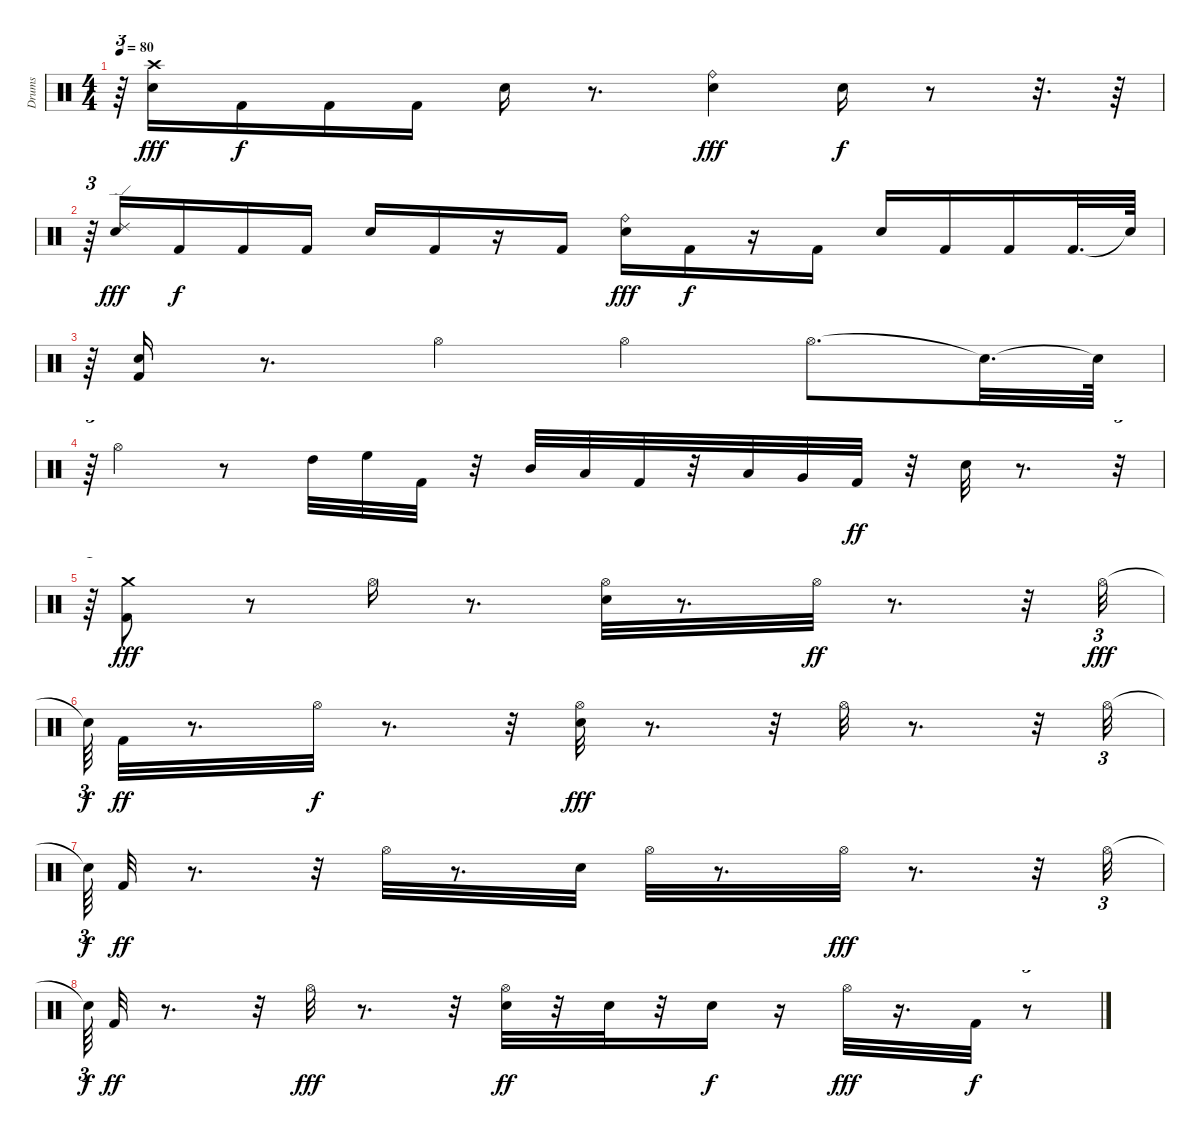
\track ("Drums" "Drums") {instrument percussion}
\staff {score}
\articulation defaults
\ts (4 4)
\tempo 80
\clef neutral
\ks c
r.64{tu (3 2) dy f} ("Crash high (hit)" "Electric Snare (hit)").16{dy fff} "Kick (hit) 2".16{dy f} "Kick (hit) 2".16 "Kick (hit) 2".16 "Electric Snare (hit)".16 r.8{d} ("Ride (bell)" "Electric Snare (hit)").4{dy fff} "Electric Snare (hit)".16{dy f} r.8 r.32{d} r.64 |
r.64{tu (3 2)} ("Ride (edge) 2" "Electric Snare (hit)").16{dy fff} "Kick (hit) 2".16{dy f} "Kick (hit) 2".16 "Kick (hit) 2".16 "Electric Snare (hit)".16 "Kick (hit) 2".16 r.16 "Kick (hit) 2".16 ("Electric Snare (hit)" "Ride (bell)").16{dy fff} "Kick (hit) 2".16{dy f} r.16 "Kick (hit) 2".16 "Electric Snare (hit)".16 "Kick (hit) 2".16 "Kick (hit) 2".16 "Kick (hit) 2".32{d} "Snare (hit)"{t}.64 |
r.64{tu (3 2)} ("Electric Snare (hit)" "Kick (hit) 2").16 r.8{d} "Hi-Hat (open)".4 "Hi-Hat (open)".4 "Hi-Hat (open)".8{d} "Snare (hit)"{t}.32{d} "Snare (hit)"{t}.64 |
r.64{tu (3 2)} "Hi-Hat (open)".4 r.8 "High Tom (hit)".32 "High Floor Tom (hit)".32 "Kick (hit) 2".32 r.32 "Mid Tom (hit)".32 "Low Tom (hit)".32 "Kick (hit) 2".32 r.32 "Low Floor Tom (hit)".32 "Very Low Tom (hit)".32 "Kick (hit) 2".32{dy ff} r.32 "Electric Snare (hit)".32 r.8{d} r.32{tu (3 2)} |
r.64{tu (3 2)} ("Kick (hit) 2" "Crash medium (hit)").8{dy fff} r.8 "Hi-Hat (open)".16 r.8{d} ("Electric Snare (hit)" "Hi-Hat (open)").32 r.8{d} "Hi-Hat (open)".32{dy ff} r.8{d} r.32 "Hi-Hat (open)".32{tu (3 2) dy fff} |
"Snare (hit)"{t}.64{tu (3 2) dy f} "Kick (hit) 2".32{dy ff} r.8{d} "Hi-Hat (open)".32{dy f} r.8{d} r.32 ("Electric Snare (hit)" "Hi-Hat (open)").32{dy fff} r.8{d} r.32 "Hi-Hat (open)".32 r.8{d} r.32 "Hi-Hat (open)".32{tu (3 2)} |
"Snare (hit)"{t}.64{tu (3 2) dy f} "Kick (hit) 2".32{dy ff} r.8{d} r.32 "Hi-Hat (open)".32 r.8{d} "Electric Snare (hit)".32 "Hi-Hat (open)".32 r.8{d} "Hi-Hat (open)".32{dy fff} r.8{d} r.32 "Hi-Hat (open)".32{tu (3 2)} |
"Snare (hit)"{t}.64{tu (3 2) dy f} "Kick (hit) 2".32{dy ff} r.8{d} r.32 "Hi-Hat (open)".32{dy fff} r.8{d} r.32 ("Hi-Hat (open)" "Electric Snare (hit)").32{dy ff} r.32 "Electric Snare (hit)".32 r.32 "Electric Snare (hit)".16{dy f} r.16 "Hi-Hat (open)".32{dy fff} r.16{d} "Kick (hit) 2".32{dy f} r.8{tu (3 2)}
